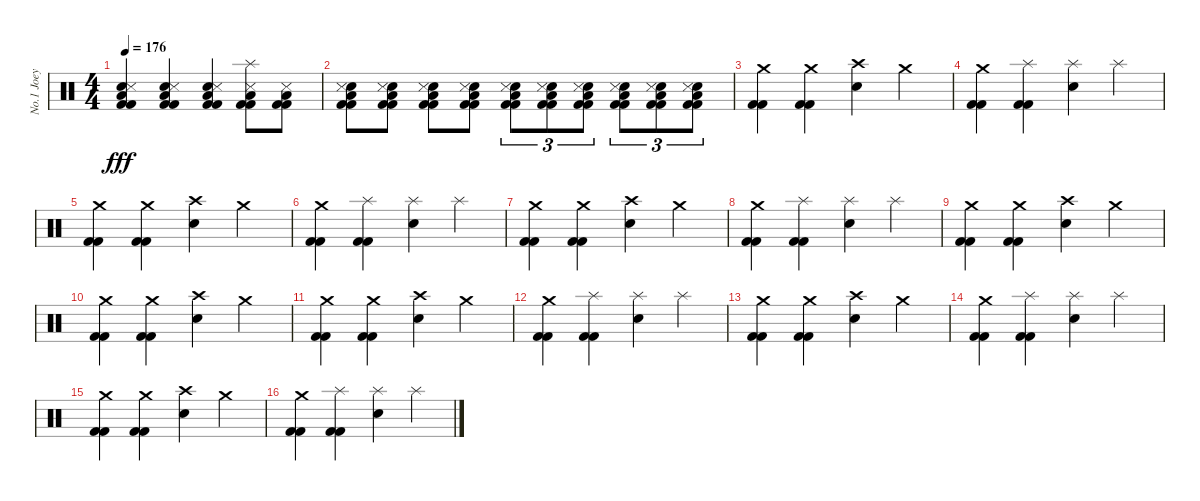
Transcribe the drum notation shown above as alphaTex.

\track ("No.1 Joey" "No.1 Joey") {instrument percussion}
\staff {score}
\articulation defaults
\ts (4 4)
\tempo 176
\clef neutral
\ks c
("Electric Snare (hit)" "Snare (side stick) 3" "Low Floor Tom (hit)" "Kick (hit) 2" "Kick (hit) 2").4{dy fff} ("Electric Snare (hit)" "Snare (side stick) 3" "Low Floor Tom (hit)" "Kick (hit) 2" "Kick (hit) 2").4 ("Electric Snare (hit)" "Snare (side stick) 3" "Low Floor Tom (hit)" "Kick (hit) 2" "Kick (hit) 2").4 ("Splash (hit)" "Snare (side stick) 3" "Low Floor Tom (hit)" "Kick (hit) 2" "Kick (hit) 2").8 ("Snare (side stick) 3" "Low Floor Tom (hit)" "Kick (hit) 2" "Kick (hit) 2").8 |
("Snare (hit) 2" "Snare (side stick) 3" "Low Floor Tom (hit)" "Kick (hit) 2" "Kick (hit) 2").8 ("Snare (hit) 2" "Snare (side stick) 3" "Low Floor Tom (hit)" "Kick (hit) 2" "Kick (hit) 2").8 ("Snare (hit) 2" "Snare (side stick) 3" "Low Floor Tom (hit)" "Kick (hit) 2" "Kick (hit) 2").8 ("Snare (hit) 2" "Snare (side stick) 3" "Low Floor Tom (hit)" "Kick (hit) 2" "Kick (hit) 2").8 ("Snare (hit) 2" "Snare (side stick) 3" "Low Floor Tom (hit)" "Kick (hit) 2" "Kick (hit) 2").8{tu (3 2)} ("Snare (hit) 2" "Snare (side stick) 3" "Low Floor Tom (hit)" "Kick (hit) 2" "Kick (hit) 2").8{tu (3 2)} ("Snare (hit) 2" "Snare (side stick) 3" "Low Floor Tom (hit)" "Kick (hit) 2" "Kick (hit) 2").8{tu (3 2)} ("Snare (hit) 2" "Snare (side stick) 3" "Low Floor Tom (hit)" "Kick (hit) 2" "Kick (hit) 2").8{tu (3 2)} ("Snare (hit) 2" "Snare (side stick) 3" "Low Floor Tom (hit)" "Kick (hit) 2" "Kick (hit) 2").8{tu (3 2)} ("Snare (hit) 2" "Snare (side stick) 3" "Low Floor Tom (hit)" "Kick (hit) 2" "Kick (hit) 2").8{tu (3 2)} |
("Crash medium (hit)" "Kick (hit) 2" "Kick (hit) 2").4 ("Crash medium (hit)" "Kick (hit) 2" "Kick (hit) 2").4 ("Electric Snare (hit)" "Crash high (hit)").4 "Crash medium (hit)".4 |
("Crash medium (hit)" "Kick (hit) 2" "Kick (hit) 2").4 ("Splash (hit)" "Kick (hit) 2" "Kick (hit) 2").4 ("Electric Snare (hit)" "Splash (hit)").4 "Splash (hit)".4 |
("Crash medium (hit)" "Kick (hit) 2" "Kick (hit) 2").4 ("Crash medium (hit)" "Kick (hit) 2" "Kick (hit) 2").4 ("Electric Snare (hit)" "Crash high (hit)").4 "Crash medium (hit)".4 |
("Crash medium (hit)" "Kick (hit) 2" "Kick (hit) 2").4 ("Splash (hit)" "Kick (hit) 2" "Kick (hit) 2").4 ("Electric Snare (hit)" "Splash (hit)").4 "Splash (hit)".4 |
("Crash medium (hit)" "Kick (hit) 2" "Kick (hit) 2").4 ("Crash medium (hit)" "Kick (hit) 2" "Kick (hit) 2").4 ("Electric Snare (hit)" "Crash high (hit)").4 "Crash medium (hit)".4 |
("Crash medium (hit)" "Kick (hit) 2" "Kick (hit) 2").4 ("Splash (hit)" "Kick (hit) 2" "Kick (hit) 2").4 ("Electric Snare (hit)" "Splash (hit)").4 "Splash (hit)".4 |
("Crash medium (hit)" "Kick (hit) 2" "Kick (hit) 2").4 ("Crash medium (hit)" "Kick (hit) 2" "Kick (hit) 2").4 ("Electric Snare (hit)" "Crash high (hit)").4 "Crash medium (hit)".4 |
("Crash medium (hit)" "Kick (hit) 2" "Kick (hit) 2").4 ("Crash medium (hit)" "Kick (hit) 2" "Kick (hit) 2").4 ("Electric Snare (hit)" "Crash high (hit)").4 "Crash medium (hit)".4 |
("Crash medium (hit)" "Kick (hit) 2" "Kick (hit) 2").4 ("Crash medium (hit)" "Kick (hit) 2" "Kick (hit) 2").4 ("Electric Snare (hit)" "Crash high (hit)").4 "Crash medium (hit)".4 |
("Crash medium (hit)" "Kick (hit) 2" "Kick (hit) 2").4 ("Splash (hit)" "Kick (hit) 2" "Kick (hit) 2").4 ("Electric Snare (hit)" "Splash (hit)").4 "Splash (hit)".4 |
("Crash medium (hit)" "Kick (hit) 2" "Kick (hit) 2").4 ("Crash medium (hit)" "Kick (hit) 2" "Kick (hit) 2").4 ("Electric Snare (hit)" "Crash high (hit)").4 "Crash medium (hit)".4 |
("Crash medium (hit)" "Kick (hit) 2" "Kick (hit) 2").4 ("Splash (hit)" "Kick (hit) 2" "Kick (hit) 2").4 ("Electric Snare (hit)" "Splash (hit)").4 "Splash (hit)".4 |
("Crash medium (hit)" "Kick (hit) 2" "Kick (hit) 2").4 ("Crash medium (hit)" "Kick (hit) 2" "Kick (hit) 2").4 ("Electric Snare (hit)" "Crash high (hit)").4 "Crash medium (hit)".4 |
("Crash medium (hit)" "Kick (hit) 2" "Kick (hit) 2").4 ("Splash (hit)" "Kick (hit) 2" "Kick (hit) 2").4 ("Electric Snare (hit)" "Splash (hit)").4 "Splash (hit)".4
